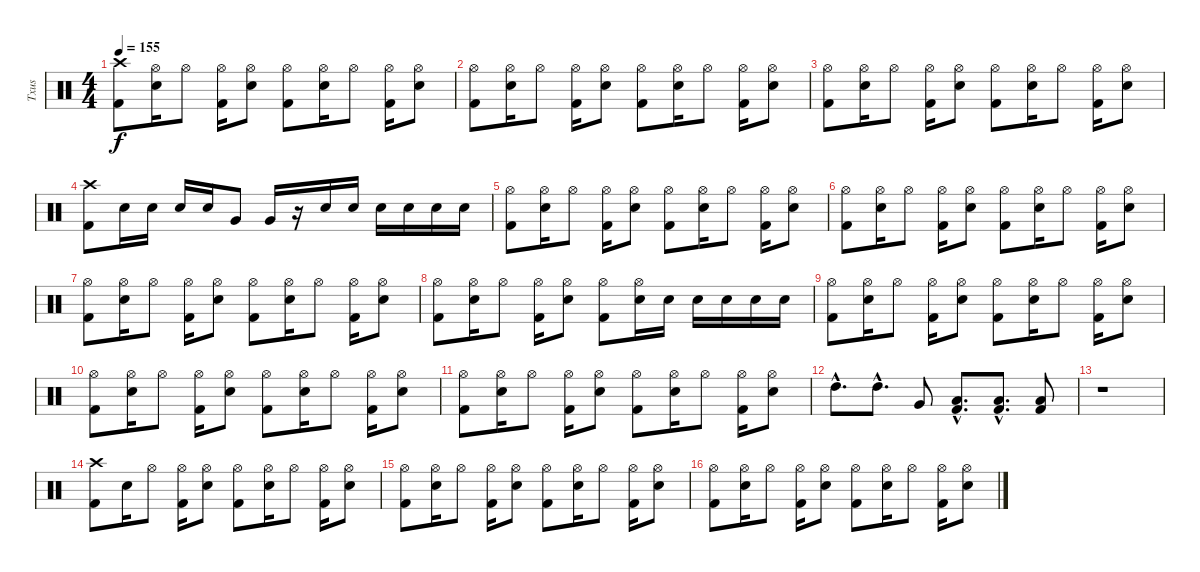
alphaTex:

\track ("Txus" "Txus") {instrument percussion}
\staff {score}
\articulation defaults
\ts (4 4)
\tempo 155
\clef neutral
\ks c
("Kick (hit) 2" "Crash high (hit)").8{dy f} ("Snare (hit) 2" "Hi-Hat (open)").16 "Hi-Hat (open)".8 ("Kick (hit) 2" "Hi-Hat (open)").16 ("Snare (hit) 2" "Hi-Hat (open)").8 ("Kick (hit) 2" "Hi-Hat (open)").8 ("Snare (hit) 2" "Hi-Hat (open)").16 "Hi-Hat (open)".8 ("Kick (hit) 2" "Hi-Hat (open)").16 ("Snare (hit) 2" "Hi-Hat (open)").8 |
("Kick (hit) 2" "Hi-Hat (open)").8 ("Snare (hit) 2" "Hi-Hat (open)").16 "Hi-Hat (open)".8 ("Kick (hit) 2" "Hi-Hat (open)").16 ("Snare (hit) 2" "Hi-Hat (open)").8 ("Kick (hit) 2" "Hi-Hat (open)").8 ("Snare (hit) 2" "Hi-Hat (open)").16 "Hi-Hat (open)".8 ("Kick (hit) 2" "Hi-Hat (open)").16 ("Snare (hit) 2" "Hi-Hat (open)").8 |
("Kick (hit) 2" "Hi-Hat (open)").8 ("Snare (hit) 2" "Hi-Hat (open)").16 "Hi-Hat (open)".8 ("Kick (hit) 2" "Hi-Hat (open)").16 ("Snare (hit) 2" "Hi-Hat (open)").8 ("Kick (hit) 2" "Hi-Hat (open)").8 ("Snare (hit) 2" "Hi-Hat (open)").16 "Hi-Hat (open)".8 ("Kick (hit) 2" "Hi-Hat (open)").16 ("Snare (hit) 2" "Hi-Hat (open)").8 |
("Kick (hit) 2" "Crash high (hit)").8 "Snare (hit) 2".16 "Snare (hit) 2".16 "Snare (hit) 2".16 "Snare (hit) 2".16 "Very Low Tom (hit)".8 "Very Low Tom (hit)".16 r.16 "Snare (hit) 2".16 "Snare (hit) 2".16 "Snare (hit) 2".16 "Snare (hit) 2".16 "Snare (hit) 2".16 "Snare (hit) 2".16 |
("Kick (hit) 2" "Hi-Hat (open)").8 ("Snare (hit) 2" "Hi-Hat (open)").16 "Hi-Hat (open)".8 ("Kick (hit) 2" "Hi-Hat (open)").16 ("Snare (hit) 2" "Hi-Hat (open)").8 ("Kick (hit) 2" "Hi-Hat (open)").8 ("Snare (hit) 2" "Hi-Hat (open)").16 "Hi-Hat (open)".8 ("Kick (hit) 2" "Hi-Hat (open)").16 ("Snare (hit) 2" "Hi-Hat (open)").8 |
("Kick (hit) 2" "Hi-Hat (open)").8 ("Snare (hit) 2" "Hi-Hat (open)").16 "Hi-Hat (open)".8 ("Kick (hit) 2" "Hi-Hat (open)").16 ("Snare (hit) 2" "Hi-Hat (open)").8 ("Kick (hit) 2" "Hi-Hat (open)").8 ("Snare (hit) 2" "Hi-Hat (open)").16 "Hi-Hat (open)".8 ("Kick (hit) 2" "Hi-Hat (open)").16 ("Snare (hit) 2" "Hi-Hat (open)").8 |
("Kick (hit) 2" "Hi-Hat (open)").8 ("Snare (hit) 2" "Hi-Hat (open)").16 "Hi-Hat (open)".8 ("Kick (hit) 2" "Hi-Hat (open)").16 ("Snare (hit) 2" "Hi-Hat (open)").8 ("Kick (hit) 2" "Hi-Hat (open)").8 ("Snare (hit) 2" "Hi-Hat (open)").16 "Hi-Hat (open)".8 ("Kick (hit) 2" "Hi-Hat (open)").16 ("Snare (hit) 2" "Hi-Hat (open)").8 |
("Kick (hit) 2" "Hi-Hat (open)").8 ("Snare (hit) 2" "Hi-Hat (open)").16 "Hi-Hat (open)".8 ("Kick (hit) 2" "Hi-Hat (open)").16 ("Snare (hit) 2" "Hi-Hat (open)").8 ("Kick (hit) 2" "Hi-Hat (open)").8 ("Snare (hit) 2" "Hi-Hat (open)").16 "Snare (hit) 2".16 "Snare (hit) 2".16 "Snare (hit) 2".16 "Snare (hit) 2".16 "Snare (hit) 2".16 |
("Kick (hit) 2" "Hi-Hat (open)").8 ("Snare (hit) 2" "Hi-Hat (open)").16 "Hi-Hat (open)".8 ("Kick (hit) 2" "Hi-Hat (open)").16 ("Snare (hit) 2" "Hi-Hat (open)").8 ("Kick (hit) 2" "Hi-Hat (open)").8 ("Snare (hit) 2" "Hi-Hat (open)").16 "Hi-Hat (open)".8 ("Kick (hit) 2" "Hi-Hat (open)").16 ("Snare (hit) 2" "Hi-Hat (open)").8 |
("Kick (hit) 2" "Hi-Hat (open)").8 ("Snare (hit) 2" "Hi-Hat (open)").16 "Hi-Hat (open)".8 ("Kick (hit) 2" "Hi-Hat (open)").16 ("Snare (hit) 2" "Hi-Hat (open)").8 ("Kick (hit) 2" "Hi-Hat (open)").8 ("Snare (hit) 2" "Hi-Hat (open)").16 "Hi-Hat (open)".8 ("Kick (hit) 2" "Hi-Hat (open)").16 ("Snare (hit) 2" "Hi-Hat (open)").8 |
("Kick (hit) 2" "Hi-Hat (open)").8 ("Snare (hit) 2" "Hi-Hat (open)").16 "Hi-Hat (open)".8 ("Kick (hit) 2" "Hi-Hat (open)").16 ("Snare (hit) 2" "Hi-Hat (open)").8 ("Kick (hit) 2" "Hi-Hat (open)").8 ("Snare (hit) 2" "Hi-Hat (open)").16 "Hi-Hat (open)".8 ("Kick (hit) 2" "Hi-Hat (open)").16 ("Snare (hit) 2" "Hi-Hat (open)").8 |
"High Tom (hit)"{hac}.8{d} "High Tom (hit)"{hac}.8{d} "Very Low Tom (hit)".8 ("Kick (hit) 2"{hac} "Low Tom (hit)"{hac}).8{d} ("Kick (hit) 2"{hac} "Low Tom (hit)"{hac}).8{d} ("Kick (hit) 2" "Low Tom (hit)").8 |
r.1 |
("Kick (hit) 2" "Crash high (hit)").8 "Snare (hit) 2".16 "Hi-Hat (open)".8 ("Kick (hit) 2" "Hi-Hat (open)").16 ("Snare (hit) 2" "Hi-Hat (open)").8 ("Kick (hit) 2" "Hi-Hat (open)").8 ("Snare (hit) 2" "Hi-Hat (open)").16 "Hi-Hat (open)".8 ("Kick (hit) 2" "Hi-Hat (open)").16 ("Snare (hit) 2" "Hi-Hat (open)").8 |
("Kick (hit) 2" "Hi-Hat (open)").8 ("Snare (hit) 2" "Hi-Hat (open)").16 "Hi-Hat (open)".8 ("Kick (hit) 2" "Hi-Hat (open)").16 ("Snare (hit) 2" "Hi-Hat (open)").8 ("Kick (hit) 2" "Hi-Hat (open)").8 ("Snare (hit) 2" "Hi-Hat (open)").16 "Hi-Hat (open)".8 ("Kick (hit) 2" "Hi-Hat (open)").16 ("Snare (hit) 2" "Hi-Hat (open)").8 |
("Kick (hit) 2" "Hi-Hat (open)").8 ("Snare (hit) 2" "Hi-Hat (open)").16 "Hi-Hat (open)".8 ("Kick (hit) 2" "Hi-Hat (open)").16 ("Snare (hit) 2" "Hi-Hat (open)").8 ("Kick (hit) 2" "Hi-Hat (open)").8 ("Snare (hit) 2" "Hi-Hat (open)").16 "Hi-Hat (open)".8 ("Kick (hit) 2" "Hi-Hat (open)").16 ("Snare (hit) 2" "Hi-Hat (open)").8
